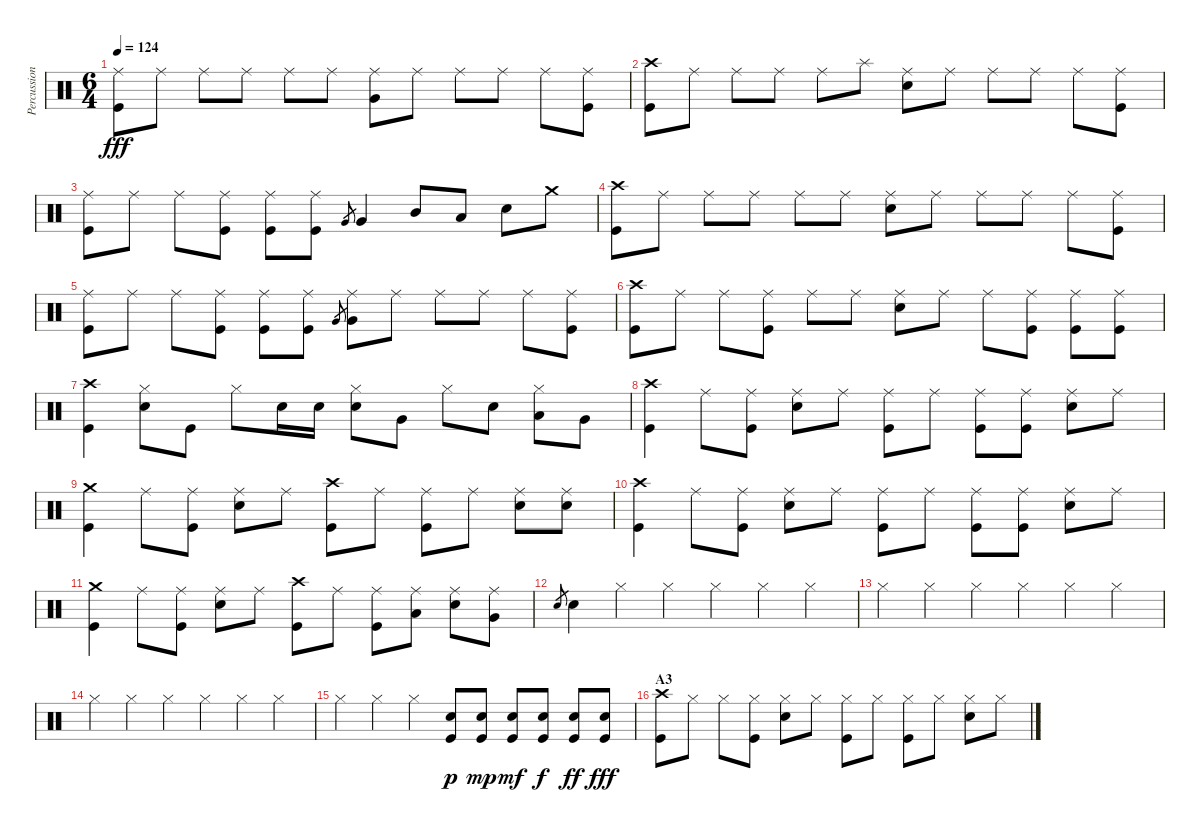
\track ("Percussion" "Percussion") {instrument percussion}
\staff {score}
\articulation defaults
\ts (6 4)
\tempo 124
\clef neutral
\ks c
("Ride (middle)" "Kick (hit)").8{dy fff} "Ride (middle)".8 "Ride (middle)".8 "Ride (middle)".8 "Ride (middle)".8 "Ride (middle)".8 ("Ride (middle)" "Very Low Tom (hit)").8 "Ride (middle)".8 "Ride (middle)".8 "Ride (middle)".8 "Ride (middle)".8 ("Ride (middle)" "Kick (hit)").8 |
("Crash high (hit)" "Kick (hit)").8 "Ride (middle)".8 "Ride (middle)".8 "Ride (middle)".8 "Ride (middle)".8 "Splash (hit)".8 ("Ride (middle)" "Snare (hit) 2").8 "Ride (middle)".8 "Ride (middle)".8 "Ride (middle)".8 "Ride (middle)".8 ("Ride (middle)" "Kick (hit)").8 |
("Ride (middle)" "Kick (hit)").8 "Ride (middle)".8 "Ride (middle)".8 ("Ride (middle)" "Kick (hit)").8 ("Ride (middle)" "Kick (hit)").8 ("Ride (middle)" "Kick (hit)").8 "Very Low Tom (hit)".8{gr} "Very Low Tom (hit)".4 "Mid Tom (hit)".8 "Low Tom (hit)".8 "Snare (hit) 2".8 "Crash medium (hit)".8 |
("Crash high (hit)" "Kick (hit)").8 "Ride (middle)".8 "Ride (middle)".8 "Ride (middle)".8 "Ride (middle)".8 "Ride (middle)".8 ("Ride (middle)" "Snare (hit) 2").8 "Ride (middle)".8 "Ride (middle)".8 "Ride (middle)".8 "Ride (middle)".8 ("Ride (middle)" "Kick (hit)").8 |
("Ride (middle)" "Kick (hit)").8 "Ride (middle)".8 "Ride (middle)".8 ("Ride (middle)" "Kick (hit)").8 ("Ride (middle)" "Kick (hit)").8 ("Ride (middle)" "Kick (hit)").8 "Very Low Tom (hit)".8{gr} ("Ride (middle)" "Very Low Tom (hit)").8 "Ride (middle)".8 "Ride (middle)".8 "Ride (middle)".8 "Ride (middle)".8 ("Ride (middle)" "Kick (hit)").8 |
("Crash high (hit)" "Kick (hit)").8 "Ride (middle)".8 "Ride (middle)".8 ("Ride (middle)" "Kick (hit)").8 "Ride (middle)".8 "Ride (middle)".8 ("Ride (middle)" "Snare (hit) 2").8 "Ride (middle)".8 "Ride (middle)".8 ("Ride (middle)" "Kick (hit)").8 ("Ride (middle)" "Kick (hit)").8 ("Ride (middle)" "Kick (hit)").8 |
("Crash high (hit)" "Kick (hit)").4 ("Hi-Hat (closed)" "Snare (hit) 2").8 "Kick (hit)".8 "Hi-Hat (closed)".8 "Snare (hit) 2".16 "Snare (hit) 2".16 ("Hi-Hat (closed)" "Snare (hit) 2").8 "Very Low Tom (hit)".8 "Hi-Hat (closed)".8 "Snare (hit) 2".8 ("Hi-Hat (closed)" "Low Tom (hit)").8 "Very Low Tom (hit)".8 |
("Crash high (hit)" "Kick (hit)").4 "Ride (middle)".8 ("Ride (middle)" "Kick (hit)").8 ("Ride (middle)" "Snare (hit) 2").8 "Ride (middle)".8 ("Ride (middle)" "Kick (hit)").8 "Ride (middle)".8 ("Ride (middle)" "Kick (hit)").8 ("Ride (middle)" "Kick (hit)").8 ("Ride (middle)" "Snare (hit) 2").8 "Ride (middle)".8 |
("Crash medium (hit)" "Kick (hit)").4 "Ride (middle)".8 ("Ride (middle)" "Kick (hit)").8 ("Ride (middle)" "Snare (hit) 2").8 "Ride (middle)".8 ("Crash high (hit)" "Kick (hit)").8 "Ride (middle)".8 ("Ride (middle)" "Kick (hit)").8 "Ride (middle)".8 ("Ride (middle)" "Snare (hit) 2").8 ("Ride (middle)" "Snare (hit) 2").8 |
("Crash high (hit)" "Kick (hit)").4 "Ride (middle)".8 ("Ride (middle)" "Kick (hit)").8 ("Ride (middle)" "Snare (hit) 2").8 "Ride (middle)".8 ("Ride (middle)" "Kick (hit)").8 "Ride (middle)".8 ("Ride (middle)" "Kick (hit)").8 ("Ride (middle)" "Kick (hit)").8 ("Ride (middle)" "Snare (hit) 2").8 "Ride (middle)".8 |
("Crash medium (hit)" "Kick (hit)").4 "Ride (middle)".8 ("Ride (middle)" "Kick (hit)").8 ("Ride (middle)" "Snare (hit) 2").8 "Ride (middle)".8 ("Crash high (hit)" "Kick (hit)").8 "Ride (middle)".8 ("Ride (middle)" "Kick (hit)").8 ("Ride (middle)" "Low Tom (hit)").8 ("Ride (middle)" "Snare (hit) 2").8 ("Ride (middle)" "Very Low Tom (hit)").8 |
"Snare (hit) 2".8{gr} "Snare (hit) 2".4 "Hi-Hat (closed)".4 "Hi-Hat (closed)".4 "Hi-Hat (closed)".4 "Hi-Hat (closed)".4 "Hi-Hat (closed)".4 |
"Hi-Hat (closed)".4 "Hi-Hat (closed)".4 "Hi-Hat (closed)".4 "Hi-Hat (closed)".4 "Hi-Hat (closed)".4 "Hi-Hat (closed)".4 |
"Hi-Hat (closed)".4 "Hi-Hat (closed)".4 "Hi-Hat (closed)".4 "Hi-Hat (closed)".4 "Hi-Hat (closed)".4 "Hi-Hat (closed)".4 |
"Hi-Hat (closed)".4 "Hi-Hat (closed)".4 "Hi-Hat (closed)".4 ("Snare (hit) 2" "Kick (hit)").8{dy p} ("Snare (hit) 2" "Kick (hit)").8{dy mp} ("Snare (hit) 2" "Kick (hit)").8{dy mf} ("Snare (hit) 2" "Kick (hit)").8{dy f} ("Snare (hit) 2" "Kick (hit)").8{dy ff} ("Snare (hit) 2" "Kick (hit)").8{dy fff} |
\section ("" "A3")
("Crash high (hit)" "Kick (hit)").8 "Hi-Hat (closed)".8 "Hi-Hat (closed)".8 ("Hi-Hat (closed)" "Kick (hit)").8 ("Hi-Hat (closed)" "Snare (hit) 2").8 "Hi-Hat (closed)".8 ("Hi-Hat (closed)" "Kick (hit)").8 "Hi-Hat (closed)".8 ("Hi-Hat (closed)" "Kick (hit)").8 "Hi-Hat (closed)".8 ("Hi-Hat (closed)" "Snare (hit) 2").8 "Hi-Hat (closed)".8
